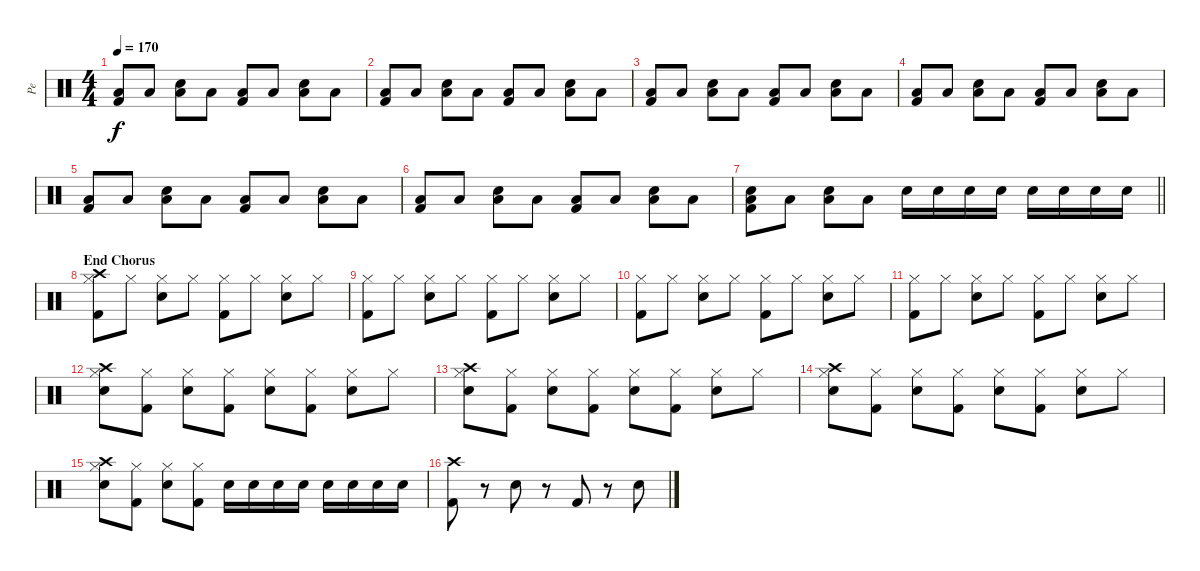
\track ("Pe" "Pe") {instrument percussion}
\staff {score}
\articulation defaults
\ts (4 4)
\tempo 170
\clef neutral
\ks c
("Low Floor Tom (hit)" "Kick (hit) 2").8{dy f} "Low Floor Tom (hit)".8 ("Snare (hit) 2" "Low Floor Tom (hit)").8 "Low Floor Tom (hit)".8 ("Low Floor Tom (hit)" "Kick (hit) 2").8 "Low Floor Tom (hit)".8 ("Snare (hit) 2" "Low Floor Tom (hit)").8 "Low Floor Tom (hit)".8 |
("Low Floor Tom (hit)" "Kick (hit) 2").8 "Low Floor Tom (hit)".8 ("Snare (hit) 2" "Low Floor Tom (hit)").8 "Low Floor Tom (hit)".8 ("Low Floor Tom (hit)" "Kick (hit) 2").8 "Low Floor Tom (hit)".8 ("Snare (hit) 2" "Low Floor Tom (hit)").8 "Low Floor Tom (hit)".8 |
("Low Floor Tom (hit)" "Kick (hit) 2").8 "Low Floor Tom (hit)".8 ("Snare (hit) 2" "Low Floor Tom (hit)").8 "Low Floor Tom (hit)".8 ("Low Floor Tom (hit)" "Kick (hit) 2").8 "Low Floor Tom (hit)".8 ("Snare (hit) 2" "Low Floor Tom (hit)").8 "Low Floor Tom (hit)".8 |
("Low Floor Tom (hit)" "Kick (hit) 2").8 "Low Floor Tom (hit)".8 ("Snare (hit) 2" "Low Floor Tom (hit)").8 "Low Floor Tom (hit)".8 ("Low Floor Tom (hit)" "Kick (hit) 2").8 "Low Floor Tom (hit)".8 ("Snare (hit) 2" "Low Floor Tom (hit)").8 "Low Floor Tom (hit)".8 |
("Low Floor Tom (hit)" "Kick (hit) 2").8 "Low Floor Tom (hit)".8 ("Snare (hit) 2" "Low Floor Tom (hit)").8 "Low Floor Tom (hit)".8 ("Low Floor Tom (hit)" "Kick (hit) 2").8 "Low Floor Tom (hit)".8 ("Snare (hit) 2" "Low Floor Tom (hit)").8 "Low Floor Tom (hit)".8 |
("Low Floor Tom (hit)" "Kick (hit) 2").8 "Low Floor Tom (hit)".8 ("Snare (hit) 2" "Low Floor Tom (hit)").8 "Low Floor Tom (hit)".8 ("Low Floor Tom (hit)" "Kick (hit) 2").8 "Low Floor Tom (hit)".8 ("Snare (hit) 2" "Low Floor Tom (hit)").8 "Low Floor Tom (hit)".8 |
\barLineRight lightlight
("Snare (hit) 2" "Low Floor Tom (hit)" "Kick (hit) 2").8 "Low Floor Tom (hit)".8 ("Snare (hit) 2" "Low Floor Tom (hit)").8 "Low Floor Tom (hit)".8 "Snare (hit) 2".16 "Snare (hit) 2".16 "Snare (hit) 2".16 "Snare (hit) 2".16 "Snare (hit) 2".16 "Snare (hit) 2".16 "Snare (hit) 2".16 "Snare (hit) 2".16 |
\section ("" "End Chorus")
("Crash high (hit)" "Hi-Hat (closed)" "Kick (hit) 2").8 "Hi-Hat (closed)".8 ("Hi-Hat (closed)" "Snare (hit) 2").8 "Hi-Hat (closed)".8 ("Hi-Hat (closed)" "Kick (hit) 2").8 "Hi-Hat (closed)".8 ("Hi-Hat (closed)" "Snare (hit) 2").8 "Hi-Hat (closed)".8 |
("Hi-Hat (closed)" "Kick (hit) 2").8 "Hi-Hat (closed)".8 ("Hi-Hat (closed)" "Snare (hit) 2").8 "Hi-Hat (closed)".8 ("Hi-Hat (closed)" "Kick (hit) 2").8 "Hi-Hat (closed)".8 ("Hi-Hat (closed)" "Snare (hit) 2").8 "Hi-Hat (closed)".8 |
("Hi-Hat (closed)" "Kick (hit) 2").8 "Hi-Hat (closed)".8 ("Hi-Hat (closed)" "Snare (hit) 2").8 "Hi-Hat (closed)".8 ("Hi-Hat (closed)" "Kick (hit) 2").8 "Hi-Hat (closed)".8 ("Hi-Hat (closed)" "Snare (hit) 2").8 "Hi-Hat (closed)".8 |
("Hi-Hat (closed)" "Kick (hit) 2").8 "Hi-Hat (closed)".8 ("Hi-Hat (closed)" "Snare (hit) 2").8 "Hi-Hat (closed)".8 ("Hi-Hat (closed)" "Kick (hit) 2").8 "Hi-Hat (closed)".8 ("Hi-Hat (closed)" "Snare (hit) 2").8 "Hi-Hat (closed)".8 |
("Crash high (hit)" "Hi-Hat (closed)" "Snare (hit) 2").8 ("Hi-Hat (closed)" "Kick (hit) 2").8 ("Hi-Hat (closed)" "Snare (hit) 2").8 ("Hi-Hat (closed)" "Kick (hit) 2").8 ("Hi-Hat (closed)" "Snare (hit) 2").8 ("Hi-Hat (closed)" "Kick (hit) 2").8 ("Hi-Hat (closed)" "Snare (hit) 2").8 "Hi-Hat (closed)".8 |
("Crash high (hit)" "Hi-Hat (closed)" "Snare (hit) 2").8 ("Hi-Hat (closed)" "Kick (hit) 2").8 ("Hi-Hat (closed)" "Snare (hit) 2").8 ("Hi-Hat (closed)" "Kick (hit) 2").8 ("Hi-Hat (closed)" "Snare (hit) 2").8 ("Hi-Hat (closed)" "Kick (hit) 2").8 ("Hi-Hat (closed)" "Snare (hit) 2").8 "Hi-Hat (closed)".8 |
("Crash high (hit)" "Hi-Hat (closed)" "Snare (hit) 2").8 ("Hi-Hat (closed)" "Kick (hit) 2").8 ("Hi-Hat (closed)" "Snare (hit) 2").8 ("Hi-Hat (closed)" "Kick (hit) 2").8 ("Hi-Hat (closed)" "Snare (hit) 2").8 ("Hi-Hat (closed)" "Kick (hit) 2").8 ("Hi-Hat (closed)" "Snare (hit) 2").8 "Hi-Hat (closed)".8 |
("Crash high (hit)" "Hi-Hat (closed)" "Snare (hit) 2").8 ("Hi-Hat (closed)" "Kick (hit) 2").8 ("Hi-Hat (closed)" "Snare (hit) 2").8 ("Hi-Hat (closed)" "Kick (hit) 2").8 "Snare (hit) 2".16 "Snare (hit) 2".16 "Snare (hit) 2".16 "Snare (hit) 2".16 "Snare (hit) 2".16 "Snare (hit) 2".16 "Snare (hit) 2".16 "Snare (hit) 2".16 |
("Crash high (hit)" "Kick (hit) 2").8 r.8 "Snare (hit) 2".8 r.8 "Kick (hit) 2".8 r.8 "Snare (hit) 2".8
